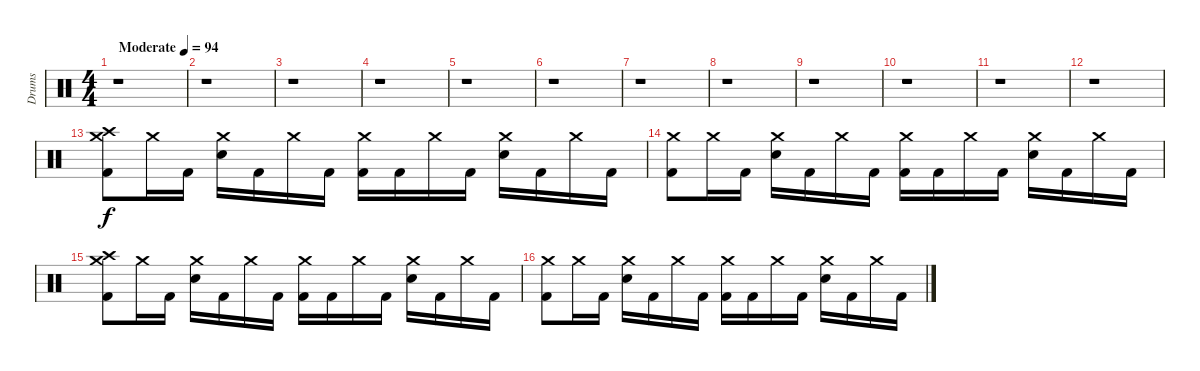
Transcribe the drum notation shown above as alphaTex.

\track ("Drums" "Drums") {instrument percussion}
\staff {score}
\articulation defaults
\ts (4 4)
\tempo (94 "Moderate")
\clef neutral
\ks c
r.1{dy f} |
r.1 |
r.1 |
r.1 |
r.1 |
r.1 |
r.1 |
r.1 |
r.1 |
r.1 |
r.1 |
r.1 |
("Crash high (hit)" "Crash medium (hit)" "Kick (hit) 2").8 "Crash medium (hit)".16 "Kick (hit) 2".16 ("Crash medium (hit)" "Electric Snare (hit)").16 "Kick (hit) 2".16 "Crash medium (hit)".16 "Kick (hit) 2".16 ("Crash medium (hit)" "Kick (hit) 2").16 "Kick (hit) 2".16 "Crash medium (hit)".16 "Kick (hit) 2".16 ("Electric Snare (hit)" "Crash medium (hit)").16 "Kick (hit) 2".16 "Crash medium (hit)".16 "Kick (hit) 2".16 |
("Crash medium (hit)" "Kick (hit) 2").8 "Crash medium (hit)".16 "Kick (hit) 2".16 ("Crash medium (hit)" "Electric Snare (hit)").16 "Kick (hit) 2".16 "Crash medium (hit)".16 "Kick (hit) 2".16 ("Crash medium (hit)" "Kick (hit) 2").16 "Kick (hit) 2".16 "Crash medium (hit)".16 "Kick (hit) 2".16 ("Electric Snare (hit)" "Crash medium (hit)").16 "Kick (hit) 2".16 "Crash medium (hit)".16 "Kick (hit) 2".16 |
("Crash high (hit)" "Crash medium (hit)" "Kick (hit) 2").8 "Crash medium (hit)".16 "Kick (hit) 2".16 ("Crash medium (hit)" "Electric Snare (hit)").16 "Kick (hit) 2".16 "Crash medium (hit)".16 "Kick (hit) 2".16 ("Crash medium (hit)" "Kick (hit) 2").16 "Kick (hit) 2".16 "Crash medium (hit)".16 "Kick (hit) 2".16 ("Electric Snare (hit)" "Crash medium (hit)").16 "Kick (hit) 2".16 "Crash medium (hit)".16 "Kick (hit) 2".16 |
("Crash medium (hit)" "Kick (hit) 2").8 "Crash medium (hit)".16 "Kick (hit) 2".16 ("Crash medium (hit)" "Electric Snare (hit)").16 "Kick (hit) 2".16 "Crash medium (hit)".16 "Kick (hit) 2".16 ("Crash medium (hit)" "Kick (hit) 2").16 "Kick (hit) 2".16 "Crash medium (hit)".16 "Kick (hit) 2".16 ("Electric Snare (hit)" "Crash medium (hit)").16 "Kick (hit) 2".16 "Crash medium (hit)".16 "Kick (hit) 2".16
